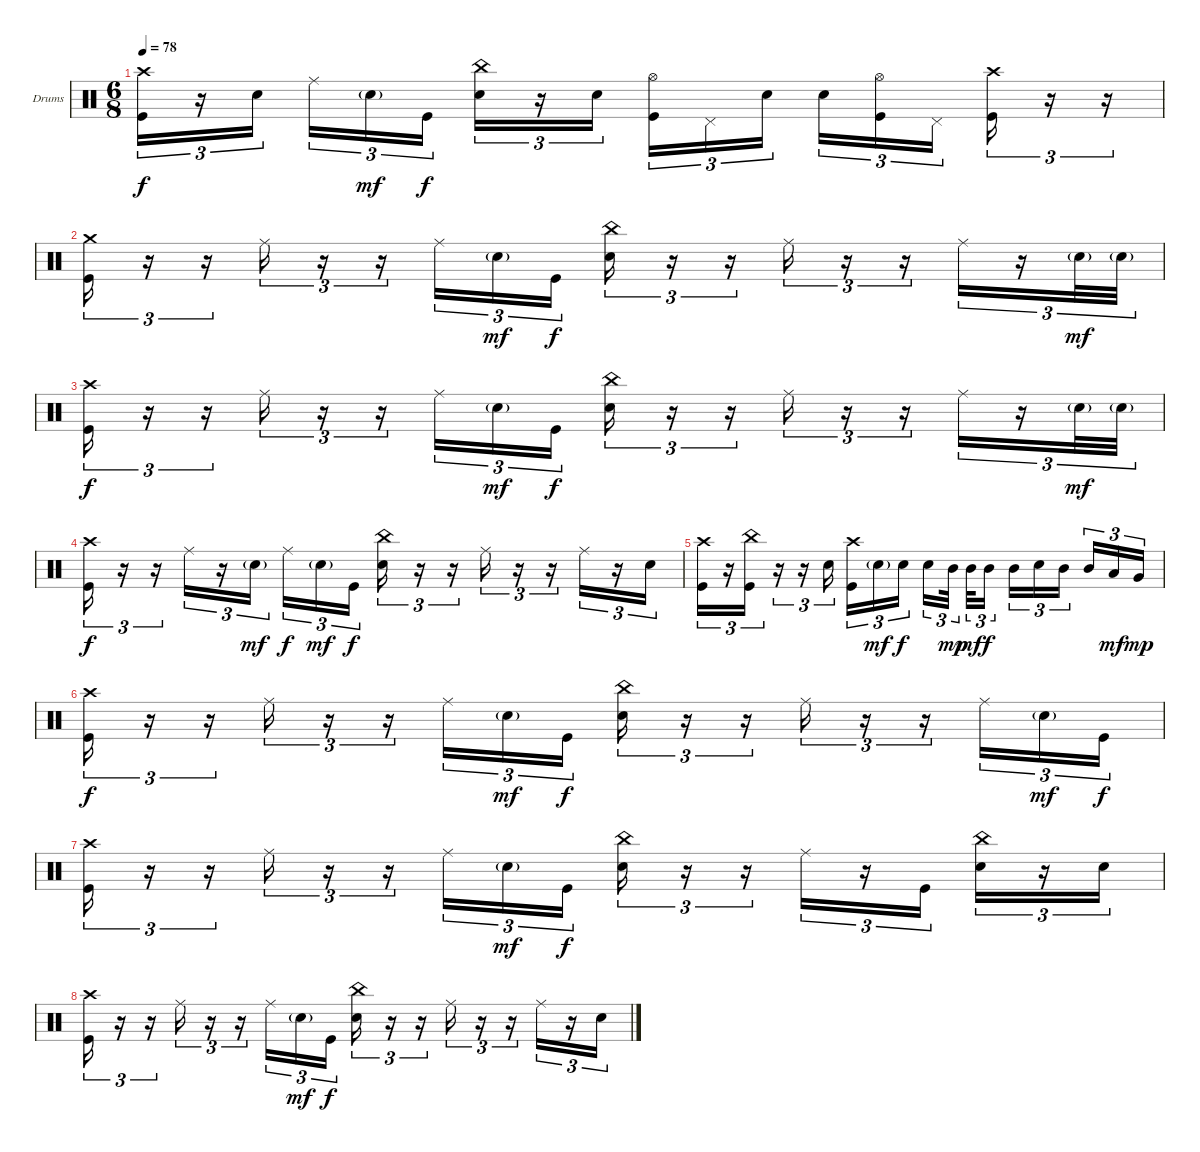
\bracketExtendMode nobrackets
\firstSystemTrackNameOrientation horizontal
\otherSystemsTrackNameOrientation horizontal
\track ("Drumkit" "Drums") {instrument percussion}
\staff {score}
\articulation defaults
\ts (6 8)
\tempo 78
\clef neutral
\ks c
("Crash high (hit)" "Kick (hit)").16{tu (3 2) dy f} r.16{tu (3 2)} "Snare (hit) 2".16{tu (3 2)} "Ride (middle)".16{tu (3 2)} "Snare (hit) 2"{g}.16{tu (3 2) dy mf} "Kick (hit)".16{tu (3 2) dy f} ("China (hit)" "Snare (hit) 2").16{tu (3 2)} r.16{tu (3 2)} "Snare (hit) 2".16{tu (3 2)} ("Hi-Hat (open)" "Kick (hit)").16{tu (3 2)} "Pedal Hi-Hat (hit)".16{tu (3 2)} "Snare (hit) 2".16{tu (3 2)} "Snare (hit) 2".16{tu (3 2)} ("Hi-Hat (open)" "Kick (hit)").16{tu (3 2)} "Pedal Hi-Hat (hit)".16{tu (3 2)} ("Crash high (hit)" "Kick (hit)").16{tu (3 2)} r.16{tu (3 2)} r.16{tu (3 2)} |
("Crash medium (hit)" "Kick (hit)").16{tu (3 2)} r.16{tu (3 2)} r.16{tu (3 2)} "Ride (middle)".16{tu (3 2)} r.16{tu (3 2)} r.16{tu (3 2)} "Ride (middle)".16{tu (3 2)} "Snare (hit) 2"{g}.16{tu (3 2) dy mf} "Kick (hit)".16{tu (3 2) dy f} ("China (hit)" "Snare (hit) 2").16{tu (3 2)} r.16{tu (3 2)} r.16{tu (3 2)} "Ride (middle)".16{tu (3 2)} r.16{tu (3 2)} r.16{tu (3 2)} "Ride (middle)".16{tu (3 2)} r.16{tu (3 2)} "Snare (hit) 2"{g}.32{tu (3 2) dy mf} "Snare (hit) 2"{g}.32{tu (3 2)} |
("Crash high (hit)" "Kick (hit)").16{tu (3 2) dy f} r.16{tu (3 2)} r.16{tu (3 2)} "Ride (middle)".16{tu (3 2)} r.16{tu (3 2)} r.16{tu (3 2)} "Ride (middle)".16{tu (3 2)} "Snare (hit) 2"{g}.16{tu (3 2) dy mf} "Kick (hit)".16{tu (3 2) dy f} ("China (hit)" "Snare (hit) 2").16{tu (3 2)} r.16{tu (3 2)} r.16{tu (3 2)} "Ride (middle)".16{tu (3 2)} r.16{tu (3 2)} r.16{tu (3 2)} "Ride (middle)".16{tu (3 2)} r.16{tu (3 2)} "Snare (hit) 2"{g}.32{tu (3 2) dy mf} "Snare (hit) 2"{g}.32{tu (3 2)} |
("Crash high (hit)" "Kick (hit)").16{tu (3 2) dy f} r.16{tu (3 2)} r.16{tu (3 2)} "Ride (middle)".16{tu (3 2)} r.16{tu (3 2)} "Snare (hit) 2"{g}.16{tu (3 2) dy mf} "Ride (middle)".16{tu (3 2) dy f} "Snare (hit) 2"{g}.16{tu (3 2) dy mf} "Kick (hit)".16{tu (3 2) dy f} ("China (hit)" "Snare (hit) 2").16{tu (3 2)} r.16{tu (3 2)} r.16{tu (3 2)} "Ride (middle)".16{tu (3 2)} r.16{tu (3 2)} r.16{tu (3 2)} "Ride (middle)".16{tu (3 2)} r.16{tu (3 2)} "Snare (hit) 2".16{tu (3 2)} |
("Crash high (hit)" "Kick (hit)").16{tu (3 2)} r.16{tu (3 2)} ("China (hit)" "Kick (hit)").16{tu (3 2)} r.16{tu (3 2)} r.16{tu (3 2)} "Snare (hit) 2".16{tu (3 2)} ("Crash high (hit)" "Kick (hit)").16{tu (3 2)} "Snare (hit) 2"{g}.16{tu (3 2) dy mf} "Snare (hit) 2".16{tu (3 2) dy f} "Snare (hit) 2".16{tu (3 2)} "Mid Tom (hit)".32{tu (3 2) dy mp} "Mid Tom (hit)".32{tu (3 2) dy mf} "Mid Tom (hit)".16{tu (3 2) dy f} "Mid Tom (hit)".16{tu (3 2)} "Snare (hit) 2".16{tu (3 2)} "Mid Tom (hit)".16{tu (3 2)} "Mid Tom (hit)".16{tu (3 2)} "Low Tom (hit)".16{tu (3 2) dy mf} "Very Low Tom (hit)".16{tu (3 2) dy mp} |
("Crash high (hit)" "Kick (hit)").16{tu (3 2) dy f} r.16{tu (3 2)} r.16{tu (3 2)} "Ride (middle)".16{tu (3 2)} r.16{tu (3 2)} r.16{tu (3 2)} "Ride (middle)".16{tu (3 2)} "Snare (hit) 2"{g}.16{tu (3 2) dy mf} "Kick (hit)".16{tu (3 2) dy f} ("China (hit)" "Snare (hit) 2").16{tu (3 2)} r.16{tu (3 2)} r.16{tu (3 2)} "Ride (middle)".16{tu (3 2)} r.16{tu (3 2)} r.16{tu (3 2)} "Ride (middle)".16{tu (3 2)} "Snare (hit) 2"{g}.16{tu (3 2) dy mf} "Kick (hit)".16{tu (3 2) dy f} |
("Crash high (hit)" "Kick (hit)").16{tu (3 2)} r.16{tu (3 2)} r.16{tu (3 2)} "Ride (middle)".16{tu (3 2)} r.16{tu (3 2)} r.16{tu (3 2)} "Ride (middle)".16{tu (3 2)} "Snare (hit) 2"{g}.16{tu (3 2) dy mf} "Kick (hit)".16{tu (3 2) dy f} ("China (hit)" "Snare (hit) 2").16{tu (3 2)} r.16{tu (3 2)} r.16{tu (3 2)} "Ride (middle)".16{tu (3 2)} r.16{tu (3 2)} "Kick (hit)".16{tu (3 2)} ("China (hit)" "Snare (hit) 2").16{tu (3 2)} r.16{tu (3 2)} "Snare (hit) 2".16{tu (3 2)} |
("Crash high (hit)" "Kick (hit)").16{tu (3 2)} r.16{tu (3 2)} r.16{tu (3 2)} "Ride (middle)".16{tu (3 2)} r.16{tu (3 2)} r.16{tu (3 2)} "Ride (middle)".16{tu (3 2)} "Snare (hit) 2"{g}.16{tu (3 2) dy mf} "Kick (hit)".16{tu (3 2) dy f} ("China (hit)" "Snare (hit) 2").16{tu (3 2)} r.16{tu (3 2)} r.16{tu (3 2)} "Ride (middle)".16{tu (3 2)} r.16{tu (3 2)} r.16{tu (3 2)} "Ride (middle)".16{tu (3 2)} r.16{tu (3 2)} "Snare (hit) 2".16{tu (3 2)}
